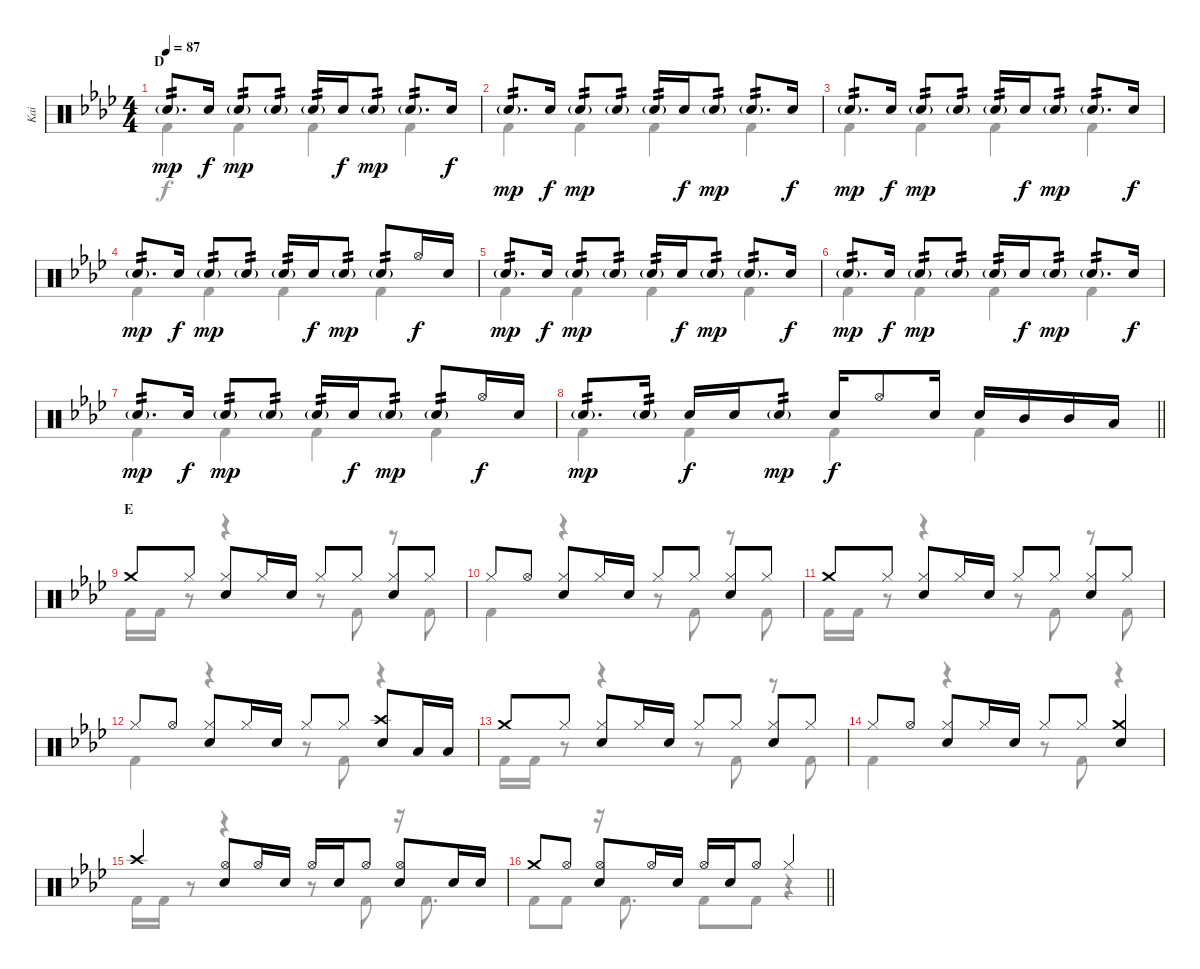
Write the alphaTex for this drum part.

\track ("Kai" "Kai") {instrument percussion}
\staff {score}
\articulation defaults
\voice
\ts (4 4)
\section ("" "D")
\tempo 87
\clef neutral
\ks ab "Snare (hit) 2"{g}.8{d tp 2 dy mp} "Snare (hit) 2".16{dy f} "Snare (hit) 2"{g}.8{tp 2 dy mp} "Snare (hit) 2"{g}.8{tp 2} "Snare (hit) 2"{g}.16{tp 2} "Snare (hit) 2".16{dy f} "Snare (hit) 2"{g}.8{tp 2 dy mp} "Snare (hit) 2"{g}.8{d tp 2} "Snare (hit) 2".16{dy f}
|
"Snare (hit) 2"{g}.8{d tp 2 dy mp} "Snare (hit) 2".16{dy f} "Snare (hit) 2"{g}.8{tp 2 dy mp} "Snare (hit) 2"{g}.8{tp 2} "Snare (hit) 2"{g}.16{tp 2} "Snare (hit) 2".16{dy f} "Snare (hit) 2"{g}.8{tp 2 dy mp} "Snare (hit) 2"{g}.8{d tp 2} "Snare (hit) 2".16{dy f} |
"Snare (hit) 2"{g}.8{d tp 2 dy mp} "Snare (hit) 2".16{dy f} "Snare (hit) 2"{g}.8{tp 2 dy mp} "Snare (hit) 2"{g}.8{tp 2} "Snare (hit) 2"{g}.16{tp 2} "Snare (hit) 2".16{dy f} "Snare (hit) 2"{g}.8{tp 2 dy mp} "Snare (hit) 2"{g}.8{d tp 2} "Snare (hit) 2".16{dy f} |
"Snare (hit) 2"{g}.8{d tp 2 dy mp} "Snare (hit) 2".16{dy f} "Snare (hit) 2"{g}.8{tp 2 dy mp} "Snare (hit) 2"{g}.8{tp 2} "Snare (hit) 2"{g}.16{tp 2} "Snare (hit) 2".16{dy f} "Snare (hit) 2"{g}.8{tp 2 dy mp} "Snare (hit) 2"{g}.8{tp 2} "Hi-Hat (open)".16{dy f} "Snare (hit) 2".16 |
"Snare (hit) 2"{g}.8{d tp 2 dy mp} "Snare (hit) 2".16{dy f} "Snare (hit) 2"{g}.8{tp 2 dy mp} "Snare (hit) 2"{g}.8{tp 2} "Snare (hit) 2"{g}.16{tp 2} "Snare (hit) 2".16{dy f} "Snare (hit) 2"{g}.8{tp 2 dy mp} "Snare (hit) 2"{g}.8{d tp 2} "Snare (hit) 2".16{dy f} |
"Snare (hit) 2"{g}.8{d tp 2 dy mp} "Snare (hit) 2".16{dy f} "Snare (hit) 2"{g}.8{tp 2 dy mp} "Snare (hit) 2"{g}.8{tp 2} "Snare (hit) 2"{g}.16{tp 2} "Snare (hit) 2".16{dy f} "Snare (hit) 2"{g}.8{tp 2 dy mp} "Snare (hit) 2"{g}.8{d tp 2} "Snare (hit) 2".16{dy f} |
"Snare (hit) 2"{g}.8{d tp 2 dy mp} "Snare (hit) 2".16{dy f} "Snare (hit) 2"{g}.8{tp 2 dy mp} "Snare (hit) 2"{g}.8{tp 2} "Snare (hit) 2"{g}.16{tp 2} "Snare (hit) 2".16{dy f} "Snare (hit) 2"{g}.8{tp 2 dy mp} "Snare (hit) 2"{g}.8{tp 2} "Hi-Hat (open)".16{dy f} "Snare (hit) 2".16 |
\barLineRight lightlight "Snare (hit) 2"{g}.8{d tp 2 dy mp} "Snare (hit) 2"{g}.16{tp 2} "Snare (hit) 2".16{dy f} "Snare (hit) 2".16 "Snare (hit) 2"{g}.8{tp 2 dy mp} "Snare (hit) 2".16{dy f} "Hi-Hat (open)".8 "Snare (hit) 2".16 "Snare (hit) 2".16 "Mid Tom (hit)".16 "Mid Tom (hit)".16 "Low Tom (hit)".16
|
\section ("" "E")
"Crash medium (hit)".8 "Hi-Hat (closed)".8 ("Hi-Hat (closed)" "Snare (hit) 2").8 "Hi-Hat (closed)".16 "Snare (hit) 2".16 "Hi-Hat (closed)".8 "Hi-Hat (closed)".8 ("Hi-Hat (closed)" "Snare (hit) 2").8 "Hi-Hat (closed)".8 |
"Hi-Hat (closed)".8 "Hi-Hat (open)".8 ("Hi-Hat (closed)" "Snare (hit) 2").8 "Hi-Hat (closed)".16 "Snare (hit) 2".16 "Hi-Hat (closed)".8 "Hi-Hat (closed)".8 ("Hi-Hat (closed)" "Snare (hit) 2").8 "Hi-Hat (closed)".8 |
"Crash medium (hit)".8 "Hi-Hat (closed)".8 ("Hi-Hat (closed)" "Snare (hit) 2").8 "Hi-Hat (closed)".16 "Snare (hit) 2".16 "Hi-Hat (closed)".8 "Hi-Hat (closed)".8 ("Hi-Hat (closed)" "Snare (hit) 2").8 "Hi-Hat (closed)".8 |
"Hi-Hat (closed)".8 "Hi-Hat (open)".8 ("Hi-Hat (closed)" "Snare (hit) 2").8 "Hi-Hat (closed)".16 "Snare (hit) 2".16 "Hi-Hat (closed)".8 "Hi-Hat (closed)".8 ("Crash high (hit)" "Snare (hit) 2").8 "Low Tom (hit)".16 "Low Tom (hit)".16 |
"Crash medium (hit)".8 "Hi-Hat (closed)".8 ("Hi-Hat (closed)" "Snare (hit) 2").8 "Hi-Hat (closed)".16 "Snare (hit) 2".16 "Hi-Hat (closed)".8 "Hi-Hat (closed)".8 ("Hi-Hat (closed)" "Snare (hit) 2").8 "Hi-Hat (closed)".8 |
"Hi-Hat (closed)".8 "Hi-Hat (open)".8 ("Hi-Hat (closed)" "Snare (hit) 2").8 "Hi-Hat (closed)".16 "Snare (hit) 2".16 "Hi-Hat (closed)".8 "Hi-Hat (closed)".8 ("Crash medium (hit)" "Snare (hit) 2").4 |
"Crash high (hit)".4 ("Hi-Hat (open)" "Snare (hit) 2").8 "Hi-Hat (open)".16 "Snare (hit) 2".16 "Hi-Hat (open)".16 "Snare (hit) 2".16 "Hi-Hat (open)".8 ("Hi-Hat (open)" "Snare (hit) 2").8 "Snare (hit) 2".16 "Snare (hit) 2".16 |
\barLineRight lightlight "Crash medium (hit)".8 "Hi-Hat (open)".8
("Hi-Hat (open)" "Snare (hit) 2").8 "Hi-Hat (open)".16 "Snare (hit) 2".16 "Hi-Hat (open)".16 "Snare (hit) 2".16 "Hi-Hat (open)".8 "Hi-Hat (closed)".4
\voice
\clef neutral
\ottava regular
\simile none
\ks ab "Kick (hit) 2".4{dy f} "Kick (hit) 2".4 "Kick (hit) 2".4 "Kick (hit) 2".4
|
"Kick (hit) 2".4 "Kick (hit) 2".4 "Kick (hit) 2".4 "Kick (hit) 2".4 |
"Kick (hit) 2".4 "Kick (hit) 2".4 "Kick (hit) 2".4 "Kick (hit) 2".4 |
"Kick (hit) 2".4 "Kick (hit) 2".4 "Kick (hit) 2".4 "Kick (hit) 2".4 |
"Kick (hit) 2".4 "Kick (hit) 2".4 "Kick (hit) 2".4 "Kick (hit) 2".4 |
"Kick (hit) 2".4 "Kick (hit) 2".4 "Kick (hit) 2".4 "Kick (hit) 2".4 |
"Kick (hit) 2".4 "Kick (hit) 2".4 "Kick (hit) 2".4 "Kick (hit) 2".4 |
\barLineRight lightlight "Kick (hit) 2".4 "Kick (hit) 2".4 "Kick (hit) 2".4 "Kick (hit) 2".4
|
"Kick (hit) 2".16 "Kick (hit) 2".16 r.8 r.4 r.8 "Kick (hit) 2".8 r.8 "Kick (hit) 2".8 |
"Kick (hit) 2".4 r.4 r.8 "Kick (hit) 2".8 r.8 "Kick (hit) 2".8 |
"Kick (hit) 2".16 "Kick (hit) 2".16 r.8 r.4 r.8 "Kick (hit) 2".8 r.8 "Kick (hit) 2".8 |
"Kick (hit) 2".4 r.4 r.8 "Kick (hit) 2".8 r.4 |
"Kick (hit) 2".16 "Kick (hit) 2".16 r.8 r.4 r.8 "Kick (hit) 2".8 r.8 "Kick (hit) 2".8 |
"Kick (hit) 2".4 r.4 r.8 "Kick (hit) 2".8 r.4 |
"Kick (hit) 2".16 "Kick (hit) 2".16 r.8 r.4 r.8 "Kick (hit) 2".8 r.16 "Kick (hit) 2".8{d} |
\barLineRight lightlight "Kick (hit) 2".8 "Kick (hit) 2".8
r.16 "Kick (hit) 2".8{d} "Kick (hit) 2".8 "Kick (hit) 2".8 r.4
